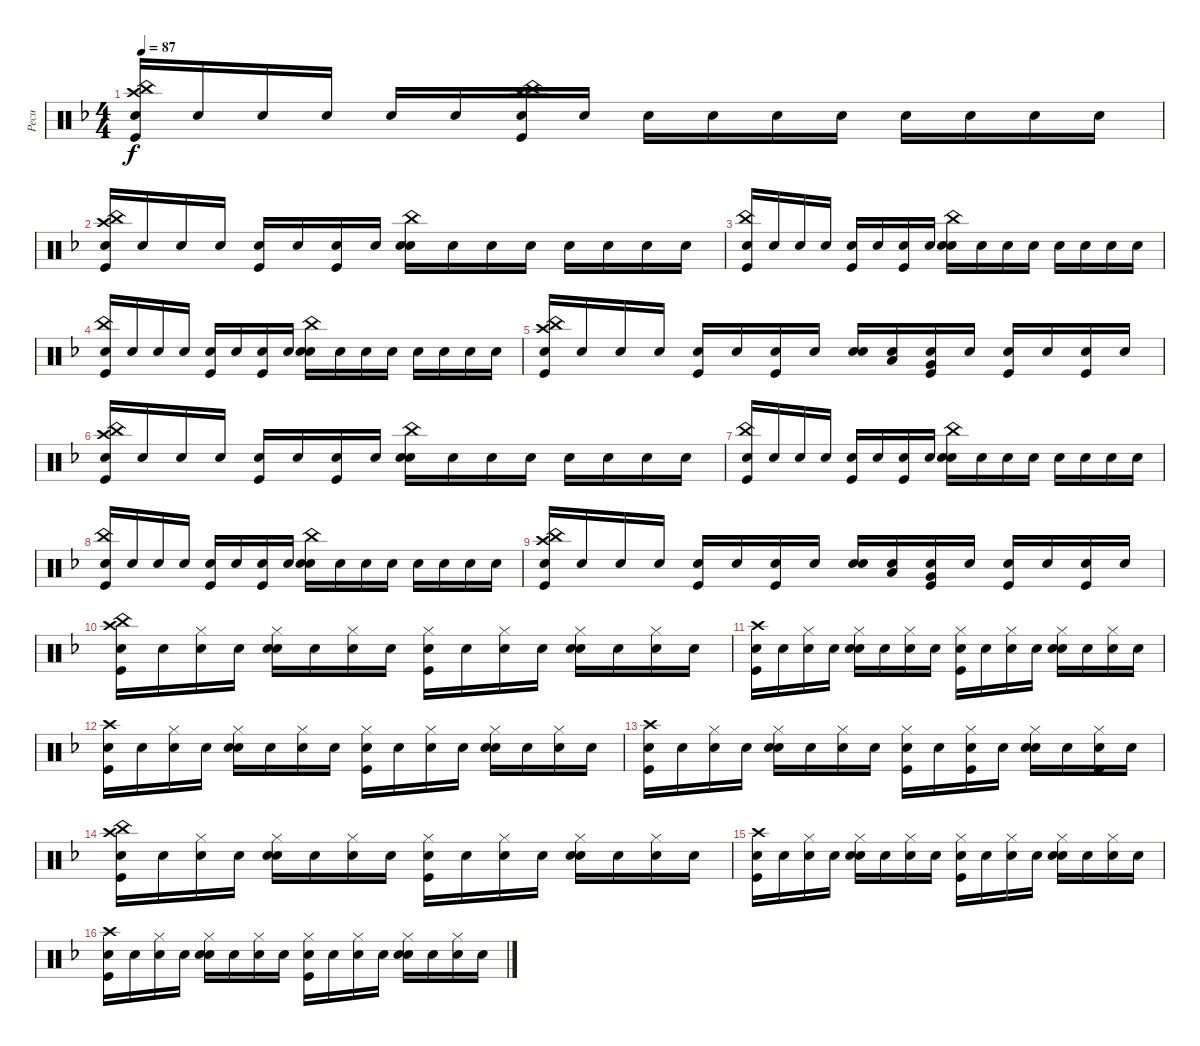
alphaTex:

\track ("Pecu" "Pecu") {instrument percussion}
\staff {score}
\articulation defaults
\ts (4 4)
\tempo 87
\clef neutral
\ks dminor
("Snare (hit)" "Crash high (hit)" "China (hit)" "Kick (hit)").16{dy f} "Snare (hit)".16 "Snare (hit)".16 "Snare (hit)".16 "Snare (hit)".16 "Snare (hit)".16 ("Snare (hit)" "Crash high (hit)" "China (hit)" "Kick (hit)").16 "Snare (hit)".16 "Snare (hit)".16 "Snare (hit)".16 "Snare (hit)".16 "Snare (hit)".16 "Snare (hit)".16 "Snare (hit)".16 "Snare (hit)".16 "Snare (hit)".16 |
("Snare (hit)" "Crash high (hit)" "China (hit)" "Kick (hit)").16 "Snare (hit)".16 "Snare (hit)".16 "Snare (hit)".16 ("Snare (hit)" "Kick (hit)").16 "Snare (hit)".16 ("Snare (hit)" "Kick (hit)").16 "Snare (hit)".16 ("Snare (hit)" "China (hit)" "Snare (hit) 2").16 "Snare (hit)".16 "Snare (hit)".16 "Snare (hit)".16 "Snare (hit)".16 "Snare (hit)".16 "Snare (hit)".16 "Snare (hit)".16 |
("Snare (hit)" "China (hit)" "Kick (hit)").16 "Snare (hit)".16 "Snare (hit)".16 "Snare (hit)".16 ("Snare (hit)" "Kick (hit)").16 "Snare (hit)".16 ("Snare (hit)" "Kick (hit)").16 "Snare (hit)".16 ("Snare (hit)" "China (hit)" "Snare (hit) 2").16 "Snare (hit)".16 "Snare (hit)".16 "Snare (hit)".16 "Snare (hit)".16 "Snare (hit)".16 "Snare (hit)".16 "Snare (hit)".16 |
("Snare (hit)" "China (hit)" "Kick (hit)").16 "Snare (hit)".16 "Snare (hit)".16 "Snare (hit)".16 ("Snare (hit)" "Kick (hit)").16 "Snare (hit)".16 ("Snare (hit)" "Kick (hit)").16 "Snare (hit)".16 ("Snare (hit)" "China (hit)" "Snare (hit) 2").16 "Snare (hit)".16 "Snare (hit)".16 "Snare (hit)".16 "Snare (hit)".16 "Snare (hit)".16 "Snare (hit)".16 "Snare (hit)".16 |
("Snare (hit)" "Crash high (hit)" "China (hit)" "Kick (hit)").16 "Snare (hit)".16 "Snare (hit)".16 "Snare (hit)".16 ("Snare (hit)" "Kick (hit)").16 "Snare (hit)".16 ("Snare (hit)" "Kick (hit)").16 "Snare (hit)".16 ("Snare (hit)" "Snare (hit) 2").16 ("Snare (hit)" "Low Tom (hit)").16 ("Snare (hit)" "Very Low Tom (hit)" "Kick (hit)").16 "Snare (hit)".16 ("Snare (hit)" "Kick (hit)").16 "Snare (hit)".16 ("Snare (hit)" "Kick (hit)").16 "Snare (hit)".16 |
("Snare (hit)" "Crash high (hit)" "China (hit)" "Kick (hit)").16 "Snare (hit)".16 "Snare (hit)".16 "Snare (hit)".16 ("Snare (hit)" "Kick (hit)").16 "Snare (hit)".16 ("Snare (hit)" "Kick (hit)").16 "Snare (hit)".16 ("Snare (hit)" "China (hit)" "Snare (hit) 2").16 "Snare (hit)".16 "Snare (hit)".16 "Snare (hit)".16 "Snare (hit)".16 "Snare (hit)".16 "Snare (hit)".16 "Snare (hit)".16 |
("Snare (hit)" "China (hit)" "Kick (hit)").16 "Snare (hit)".16 "Snare (hit)".16 "Snare (hit)".16 ("Snare (hit)" "Kick (hit)").16 "Snare (hit)".16 ("Snare (hit)" "Kick (hit)").16 "Snare (hit)".16 ("Snare (hit)" "China (hit)" "Snare (hit) 2").16 "Snare (hit)".16 "Snare (hit)".16 "Snare (hit)".16 "Snare (hit)".16 "Snare (hit)".16 "Snare (hit)".16 "Snare (hit)".16 |
("Snare (hit)" "China (hit)" "Kick (hit)").16 "Snare (hit)".16 "Snare (hit)".16 "Snare (hit)".16 ("Snare (hit)" "Kick (hit)").16 "Snare (hit)".16 ("Snare (hit)" "Kick (hit)").16 "Snare (hit)".16 ("Snare (hit)" "China (hit)" "Snare (hit) 2").16 "Snare (hit)".16 "Snare (hit)".16 "Snare (hit)".16 "Snare (hit)".16 "Snare (hit)".16 "Snare (hit)".16 "Snare (hit)".16 |
("Snare (hit)" "Crash high (hit)" "China (hit)" "Kick (hit)").16 "Snare (hit)".16 "Snare (hit)".16 "Snare (hit)".16 ("Snare (hit)" "Kick (hit)").16 "Snare (hit)".16 ("Snare (hit)" "Kick (hit)").16 "Snare (hit)".16 ("Snare (hit)" "Snare (hit) 2").16 ("Snare (hit)" "Low Tom (hit)").16 ("Snare (hit)" "Very Low Tom (hit)" "Kick (hit)").16 "Snare (hit)".16 ("Snare (hit)" "Kick (hit)").16 "Snare (hit)".16 ("Snare (hit)" "Kick (hit)").16 "Snare (hit)".16 |
("Snare (hit)" "Crash high (hit)" "China (hit)" "Kick (hit)").16 "Snare (hit)".16 ("Snare (hit)" "Hi-Hat (closed)").16 "Snare (hit)".16 ("Snare (hit)" "Hi-Hat (closed)" "Snare (hit) 2").16 "Snare (hit)".16 ("Snare (hit)" "Hi-Hat (closed)").16 "Snare (hit)".16 ("Snare (hit)" "Hi-Hat (closed)" "Kick (hit)").16 "Snare (hit)".16 ("Snare (hit)" "Hi-Hat (closed)").16 "Snare (hit)".16 ("Snare (hit)" "Hi-Hat (closed)" "Snare (hit) 2").16 "Snare (hit)".16 ("Snare (hit)" "Hi-Hat (closed)").16 "Snare (hit)".16 |
("Snare (hit)" "Crash high (hit)" "Kick (hit)").16 "Snare (hit)".16 ("Snare (hit)" "Hi-Hat (closed)").16 "Snare (hit)".16 ("Snare (hit)" "Hi-Hat (closed)" "Snare (hit) 2").16 "Snare (hit)".16 ("Snare (hit)" "Hi-Hat (closed)").16 "Snare (hit)".16 ("Snare (hit)" "Hi-Hat (closed)" "Kick (hit)").16 "Snare (hit)".16 ("Snare (hit)" "Hi-Hat (closed)").16 "Snare (hit)".16 ("Snare (hit)" "Hi-Hat (closed)" "Snare (hit) 2").16 "Snare (hit)".16 ("Snare (hit)" "Hi-Hat (closed)").16 "Snare (hit)".16 |
("Snare (hit)" "Crash high (hit)" "Kick (hit)").16 "Snare (hit)".16 ("Snare (hit)" "Hi-Hat (closed)").16 "Snare (hit)".16 ("Snare (hit)" "Hi-Hat (closed)" "Snare (hit) 2").16 "Snare (hit)".16 ("Snare (hit)" "Hi-Hat (closed)").16 "Snare (hit)".16 ("Snare (hit)" "Hi-Hat (closed)" "Kick (hit)").16 "Snare (hit)".16 ("Snare (hit)" "Hi-Hat (closed)").16 "Snare (hit)".16 ("Snare (hit)" "Hi-Hat (closed)" "Snare (hit) 2").16 "Snare (hit)".16 ("Snare (hit)" "Hi-Hat (closed)").16 "Snare (hit)".16 |
("Snare (hit)" "Crash high (hit)" "Kick (hit)").16 "Snare (hit)".16 ("Snare (hit)" "Hi-Hat (closed)").16 "Snare (hit)".16 ("Snare (hit)" "Hi-Hat (closed)" "Snare (hit) 2").16 "Snare (hit)".16 ("Snare (hit)" "Hi-Hat (closed)").16 "Snare (hit)".16 ("Snare (hit)" "Hi-Hat (closed)" "Kick (hit)").16 "Snare (hit)".16 ("Snare (hit)" "Hi-Hat (closed)" "Kick (hit)").16 "Snare (hit)".16 ("Snare (hit)" "Hi-Hat (closed)" "Snare (hit) 2").16 "Snare (hit)".16 ("Snare (hit)" "Hi-Hat (closed)" "Kick (hit)").16 "Snare (hit)".16 |
("Snare (hit)" "Crash high (hit)" "China (hit)" "Kick (hit)").16 "Snare (hit)".16 ("Snare (hit)" "Hi-Hat (closed)").16 "Snare (hit)".16 ("Snare (hit)" "Hi-Hat (closed)" "Snare (hit) 2").16 "Snare (hit)".16 ("Snare (hit)" "Hi-Hat (closed)").16 "Snare (hit)".16 ("Snare (hit)" "Hi-Hat (closed)" "Kick (hit)").16 "Snare (hit)".16 ("Snare (hit)" "Hi-Hat (closed)").16 "Snare (hit)".16 ("Snare (hit)" "Hi-Hat (closed)" "Snare (hit) 2").16 "Snare (hit)".16 ("Snare (hit)" "Hi-Hat (closed)").16 "Snare (hit)".16 |
("Snare (hit)" "Crash high (hit)" "Kick (hit)").16 "Snare (hit)".16 ("Snare (hit)" "Hi-Hat (closed)").16 "Snare (hit)".16 ("Snare (hit)" "Hi-Hat (closed)" "Snare (hit) 2").16 "Snare (hit)".16 ("Snare (hit)" "Hi-Hat (closed)").16 "Snare (hit)".16 ("Snare (hit)" "Hi-Hat (closed)" "Kick (hit)").16 "Snare (hit)".16 ("Snare (hit)" "Hi-Hat (closed)").16 "Snare (hit)".16 ("Snare (hit)" "Hi-Hat (closed)" "Snare (hit) 2").16 "Snare (hit)".16 ("Snare (hit)" "Hi-Hat (closed)").16 "Snare (hit)".16 |
("Snare (hit)" "Crash high (hit)" "Kick (hit)").16 "Snare (hit)".16 ("Snare (hit)" "Hi-Hat (closed)").16 "Snare (hit)".16 ("Snare (hit)" "Hi-Hat (closed)" "Snare (hit) 2").16 "Snare (hit)".16 ("Snare (hit)" "Hi-Hat (closed)").16 "Snare (hit)".16 ("Snare (hit)" "Hi-Hat (closed)" "Kick (hit)").16 "Snare (hit)".16 ("Snare (hit)" "Hi-Hat (closed)").16 "Snare (hit)".16 ("Snare (hit)" "Hi-Hat (closed)" "Snare (hit) 2").16 "Snare (hit)".16 ("Snare (hit)" "Hi-Hat (closed)").16 "Snare (hit)".16
